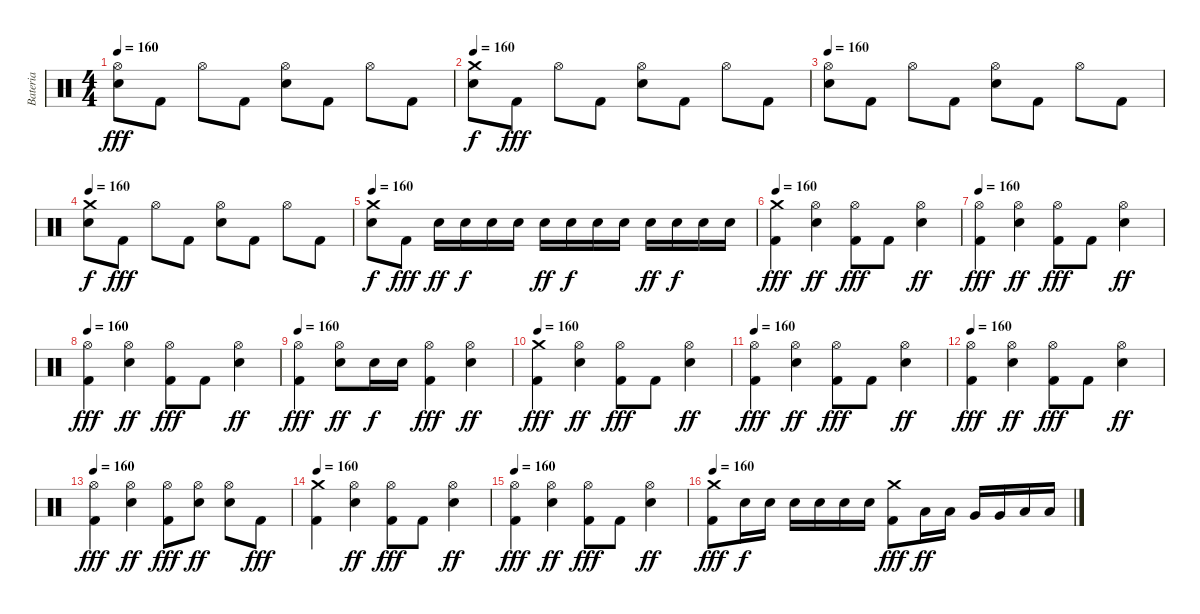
\track ("Bateria" "Bateria") {instrument percussion}
\staff {score}
\articulation defaults
\ts (4 4)
\tempo 160
\clef neutral
\ks c
("Hi-Hat (open)" "Electric Snare (hit)").8{dy fff} "Kick (hit) 2".8 "Hi-Hat (open)".8 "Kick (hit) 2".8 ("Hi-Hat (open)" "Electric Snare (hit)").8 "Kick (hit) 2".8 "Hi-Hat (open)".8 "Kick (hit) 2".8 |
\tempo 160
("Crash medium (hit)" "Electric Snare (hit)").8{dy f} "Kick (hit) 2".8{dy fff} "Hi-Hat (open)".8 "Kick (hit) 2".8 ("Hi-Hat (open)" "Electric Snare (hit)").8 "Kick (hit) 2".8 "Hi-Hat (open)".8 "Kick (hit) 2".8 |
\tempo 160
("Hi-Hat (open)" "Electric Snare (hit)").8 "Kick (hit) 2".8 "Hi-Hat (open)".8 "Kick (hit) 2".8 ("Hi-Hat (open)" "Electric Snare (hit)").8 "Kick (hit) 2".8 "Hi-Hat (open)".8 "Kick (hit) 2".8 |
\tempo 160
("Crash medium (hit)" "Electric Snare (hit)").8{dy f} "Kick (hit) 2".8{dy fff} "Hi-Hat (open)".8 "Kick (hit) 2".8 ("Hi-Hat (open)" "Electric Snare (hit)").8 "Kick (hit) 2".8 "Hi-Hat (open)".8 "Kick (hit) 2".8 |
\tempo 160
("Crash medium (hit)" "Electric Snare (hit)").8{dy f} "Kick (hit) 2".8{dy fff} "Electric Snare (hit)".16{dy ff} "Electric Snare (hit)".16{dy f} "Electric Snare (hit)".16 "Electric Snare (hit)".16 "Electric Snare (hit)".16{dy ff} "Electric Snare (hit)".16{dy f} "Electric Snare (hit)".16 "Electric Snare (hit)".16 "Electric Snare (hit)".16{dy ff} "Electric Snare (hit)".16{dy f} "Electric Snare (hit)".16 "Electric Snare (hit)".16 |
\tempo 160
("Crash medium (hit)" "Kick (hit) 2").4{dy fff} ("Hi-Hat (open)" "Electric Snare (hit)").4{dy ff} ("Hi-Hat (open)" "Kick (hit) 2").8{dy fff} "Kick (hit) 2".8 ("Hi-Hat (open)" "Electric Snare (hit)").4{dy ff} |
\tempo 160
("Hi-Hat (open)" "Kick (hit) 2").4{dy fff} ("Hi-Hat (open)" "Electric Snare (hit)").4{dy ff} ("Hi-Hat (open)" "Kick (hit) 2").8{dy fff} "Kick (hit) 2".8 ("Hi-Hat (open)" "Electric Snare (hit)").4{dy ff} |
\tempo 160
("Hi-Hat (open)" "Kick (hit) 2").4{dy fff} ("Hi-Hat (open)" "Electric Snare (hit)").4{dy ff} ("Hi-Hat (open)" "Kick (hit) 2").8{dy fff} "Kick (hit) 2".8 ("Hi-Hat (open)" "Electric Snare (hit)").4{dy ff} |
\tempo 160
("Hi-Hat (open)" "Kick (hit) 2").4{dy fff} ("Hi-Hat (open)" "Electric Snare (hit)").8{dy ff} "Electric Snare (hit)".16{dy f} "Electric Snare (hit)".16 ("Hi-Hat (open)" "Kick (hit) 2").4{dy fff} ("Hi-Hat (open)" "Electric Snare (hit)").4{dy ff} |
\tempo 160
("Crash medium (hit)" "Kick (hit) 2").4{dy fff} ("Hi-Hat (open)" "Electric Snare (hit)").4{dy ff} ("Hi-Hat (open)" "Kick (hit) 2").8{dy fff} "Kick (hit) 2".8 ("Hi-Hat (open)" "Electric Snare (hit)").4{dy ff} |
\tempo 160
("Hi-Hat (open)" "Kick (hit) 2").4{dy fff} ("Hi-Hat (open)" "Electric Snare (hit)").4{dy ff} ("Hi-Hat (open)" "Kick (hit) 2").8{dy fff} "Kick (hit) 2".8 ("Hi-Hat (open)" "Electric Snare (hit)").4{dy ff} |
\tempo 160
("Hi-Hat (open)" "Kick (hit) 2").4{dy fff} ("Hi-Hat (open)" "Electric Snare (hit)").4{dy ff} ("Hi-Hat (open)" "Kick (hit) 2").8{dy fff} "Kick (hit) 2".8 ("Hi-Hat (open)" "Electric Snare (hit)").4{dy ff} |
\tempo 160
("Hi-Hat (open)" "Kick (hit) 2").4{dy fff} ("Hi-Hat (open)" "Electric Snare (hit)").4{dy ff} ("Hi-Hat (open)" "Kick (hit) 2").8{dy fff} ("Hi-Hat (open)" "Electric Snare (hit)").8{dy ff} ("Hi-Hat (open)" "Electric Snare (hit)").8 "Kick (hit) 2".8{dy fff} |
\tempo 160
("Crash medium (hit)" "Kick (hit) 2").4 ("Hi-Hat (open)" "Electric Snare (hit)").4{dy ff} ("Hi-Hat (open)" "Kick (hit) 2").8{dy fff} "Kick (hit) 2".8 ("Hi-Hat (open)" "Electric Snare (hit)").4{dy ff} |
\tempo 160
("Hi-Hat (open)" "Kick (hit) 2").4{dy fff} ("Hi-Hat (open)" "Electric Snare (hit)").4{dy ff} ("Hi-Hat (open)" "Kick (hit) 2").8{dy fff} "Kick (hit) 2".8 ("Hi-Hat (open)" "Electric Snare (hit)").4{dy ff} |
\tempo 160
("Crash medium (hit)" "Kick (hit) 2").8{dy fff} "Electric Snare (hit)".16{dy f} "Electric Snare (hit)".16 "Electric Snare (hit)".16 "Electric Snare (hit)".16 "Electric Snare (hit)".16 "Electric Snare (hit)".16 ("Crash medium (hit)" "Kick (hit) 2").8{dy fff} "Low Tom (hit)".16{dy ff} "Low Tom (hit)".16 "Very Low Tom (hit)".16 "Very Low Tom (hit)".16 "Low Floor Tom (hit)".16 "Low Floor Tom (hit)".16
